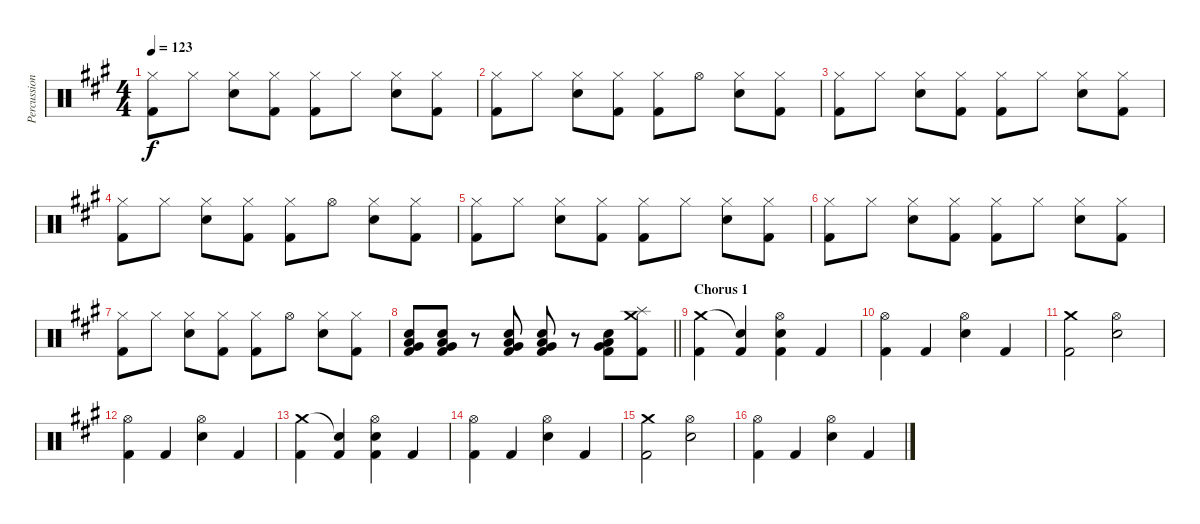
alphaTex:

\track ("Percussion" "Percussion") {instrument percussion}
\staff {score}
\articulation defaults
\ts (4 4)
\tempo 123
\clef neutral
\ks a
("Hi-Hat (closed)" "Kick (hit) 2").8{dy f} "Hi-Hat (closed)".8 ("Hi-Hat (closed)" "Electric Snare (hit)").8 ("Hi-Hat (closed)" "Kick (hit) 2").8 ("Hi-Hat (closed)" "Kick (hit) 2").8 "Hi-Hat (closed)".8 ("Hi-Hat (closed)" "Electric Snare (hit)").8 ("Hi-Hat (closed)" "Kick (hit) 2").8 |
("Hi-Hat (closed)" "Kick (hit) 2").8 "Hi-Hat (closed)".8 ("Hi-Hat (closed)" "Electric Snare (hit)").8 ("Hi-Hat (closed)" "Kick (hit) 2").8 ("Hi-Hat (closed)" "Kick (hit) 2").8 "Hi-Hat (open)".8 ("Hi-Hat (closed)" "Electric Snare (hit)").8 ("Hi-Hat (closed)" "Kick (hit) 2").8 |
("Hi-Hat (closed)" "Kick (hit) 2").8 "Hi-Hat (closed)".8 ("Hi-Hat (closed)" "Electric Snare (hit)").8 ("Hi-Hat (closed)" "Kick (hit) 2").8 ("Hi-Hat (closed)" "Kick (hit) 2").8 "Hi-Hat (closed)".8 ("Hi-Hat (closed)" "Electric Snare (hit)").8 ("Hi-Hat (closed)" "Kick (hit) 2").8 |
("Hi-Hat (closed)" "Kick (hit) 2").8 "Hi-Hat (closed)".8 ("Hi-Hat (closed)" "Electric Snare (hit)").8 ("Hi-Hat (closed)" "Kick (hit) 2").8 ("Hi-Hat (closed)" "Kick (hit) 2").8 "Hi-Hat (open)".8 ("Hi-Hat (closed)" "Electric Snare (hit)").8 ("Hi-Hat (closed)" "Kick (hit) 2").8 |
("Hi-Hat (closed)" "Kick (hit) 2").8 "Hi-Hat (closed)".8 ("Hi-Hat (closed)" "Electric Snare (hit)").8 ("Hi-Hat (closed)" "Kick (hit) 2").8 ("Hi-Hat (closed)" "Kick (hit) 2").8 "Hi-Hat (closed)".8 ("Hi-Hat (closed)" "Electric Snare (hit)").8 ("Hi-Hat (closed)" "Kick (hit) 2").8 |
("Hi-Hat (closed)" "Kick (hit) 2").8 "Hi-Hat (closed)".8 ("Hi-Hat (closed)" "Electric Snare (hit)").8 ("Hi-Hat (closed)" "Kick (hit) 2").8 ("Hi-Hat (closed)" "Kick (hit) 2").8 "Hi-Hat (closed)".8 ("Hi-Hat (closed)" "Electric Snare (hit)").8 ("Hi-Hat (closed)" "Kick (hit) 2").8 |
("Hi-Hat (closed)" "Kick (hit) 2").8 "Hi-Hat (closed)".8 ("Hi-Hat (closed)" "Electric Snare (hit)").8 ("Hi-Hat (closed)" "Kick (hit) 2").8 ("Hi-Hat (closed)" "Kick (hit) 2").8 "Hi-Hat (open)".8 ("Hi-Hat (closed)" "Electric Snare (hit)").8 ("Hi-Hat (closed)" "Kick (hit) 2").8 |
\barLineRight lightlight
("Electric Snare (hit)" "Low Floor Tom (hit)" "Very Low Tom (hit)" "Kick (hit) 2").8 ("Electric Snare (hit)" "Low Floor Tom (hit)" "Very Low Tom (hit)" "Kick (hit) 2").8 r.8 ("Electric Snare (hit)" "Low Floor Tom (hit)" "Very Low Tom (hit)" "Kick (hit) 2").8 ("Electric Snare (hit)" "Low Floor Tom (hit)" "Very Low Tom (hit)" "Kick (hit) 2").8 r.8 ("Electric Snare (hit)" "Low Floor Tom (hit)" "Very Low Tom (hit)" "Kick (hit) 2").8 ("Splash (hit)" "Crash medium (hit)" "Kick (hit) 2").8 |
\section ("" "Chorus 1")
("Crash medium (hit)" "Kick (hit) 2").4 ("Snare (hit)"{t} "Kick (hit) 2").4 ("Hi-Hat (open)" "Electric Snare (hit)" "Kick (hit) 2").4 "Kick (hit) 2".4 |
("Hi-Hat (open)" "Kick (hit) 2").4 "Kick (hit) 2".4 ("Hi-Hat (open)" "Electric Snare (hit)").4 "Kick (hit) 2".4 |
("Crash medium (hit)" "Kick (hit) 2").2 ("Hi-Hat (open)" "Electric Snare (hit)").2 |
("Hi-Hat (open)" "Kick (hit) 2").4 "Kick (hit) 2".4 ("Hi-Hat (open)" "Electric Snare (hit)").4 "Kick (hit) 2".4 |
("Crash medium (hit)" "Kick (hit) 2").4 ("Snare (hit)"{t} "Kick (hit) 2").4 ("Hi-Hat (open)" "Electric Snare (hit)" "Kick (hit) 2").4 "Kick (hit) 2".4 |
("Hi-Hat (open)" "Kick (hit) 2").4 "Kick (hit) 2".4 ("Hi-Hat (open)" "Electric Snare (hit)").4 "Kick (hit) 2".4 |
("Crash medium (hit)" "Kick (hit) 2").2 ("Hi-Hat (open)" "Electric Snare (hit)").2 |
("Hi-Hat (open)" "Kick (hit) 2").4 "Kick (hit) 2".4 ("Hi-Hat (open)" "Electric Snare (hit)").4 "Kick (hit) 2".4
